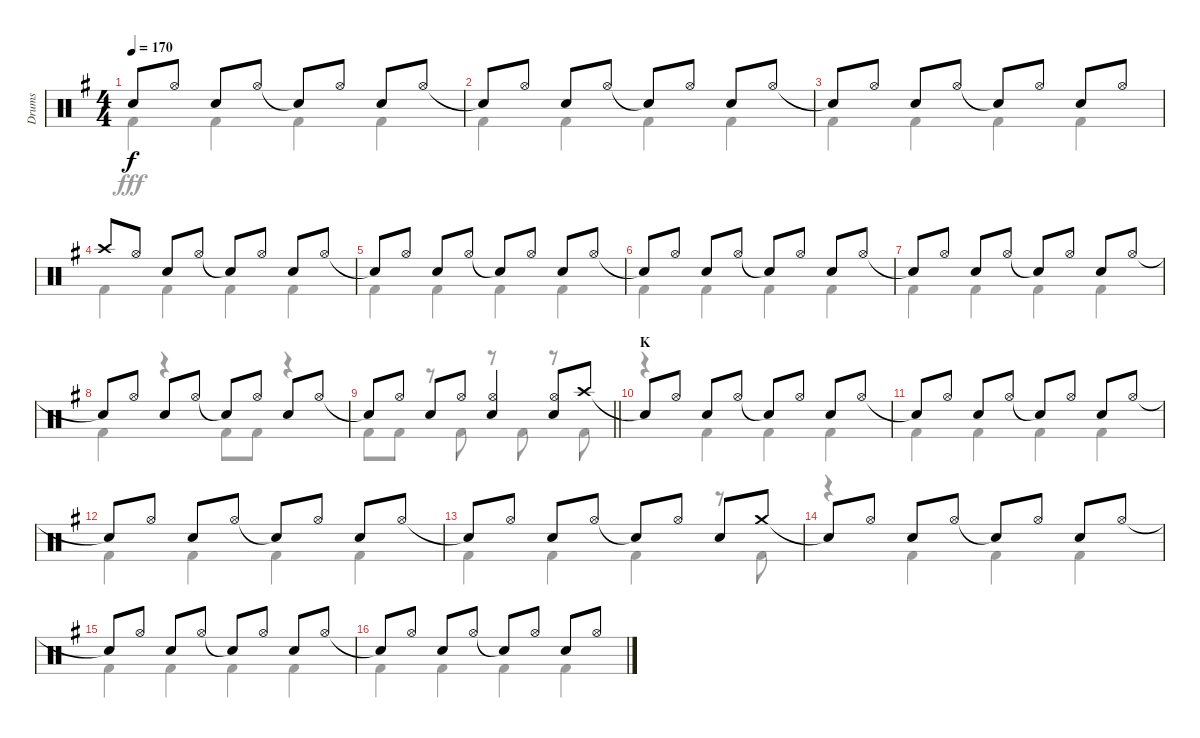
\track ("Drums" "Drums") {instrument percussion}
\staff {score}
\articulation defaults
\voice
\ts (4 4)
\tempo 170
\clef neutral
\ks g "Snare (hit)"{t}.8{dy f} "Hi-Hat (open)".8 "Snare (hit) 2".8 "Hi-Hat (open)".8 "Snare (hit)"{t}.8 "Hi-Hat (open)".8 "Snare (hit) 2".8 "Hi-Hat (open)".8
|
"Snare (hit)"{t}.8 "Hi-Hat (open)".8 "Snare (hit) 2".8 "Hi-Hat (open)".8 "Snare (hit)"{t}.8 "Hi-Hat (open)".8 "Snare (hit) 2".8 "Hi-Hat (open)".8 |
"Snare (hit)"{t}.8 "Hi-Hat (open)".8 "Snare (hit) 2".8 "Hi-Hat (open)".8 "Snare (hit)"{t}.8 "Hi-Hat (open)".8 "Snare (hit) 2".8 "Hi-Hat (open)".8 |
"Crash high (hit)".8 "Hi-Hat (open)".8 "Snare (hit) 2".8 "Hi-Hat (open)".8 "Snare (hit)"{t}.8 "Hi-Hat (open)".8 "Snare (hit) 2".8 "Hi-Hat (open)".8 |
"Snare (hit)"{t}.8 "Hi-Hat (open)".8 "Snare (hit) 2".8 "Hi-Hat (open)".8 "Snare (hit)"{t}.8 "Hi-Hat (open)".8 "Snare (hit) 2".8 "Hi-Hat (open)".8 |
"Snare (hit)"{t}.8 "Hi-Hat (open)".8 "Snare (hit) 2".8 "Hi-Hat (open)".8 "Snare (hit)"{t}.8 "Hi-Hat (open)".8 "Snare (hit) 2".8 "Hi-Hat (open)".8 |
"Snare (hit)"{t}.8 "Hi-Hat (open)".8 "Snare (hit) 2".8 "Hi-Hat (open)".8 "Snare (hit)"{t}.8 "Hi-Hat (open)".8 "Snare (hit) 2".8 "Hi-Hat (open)".8 |
"Snare (hit)"{t}.8 "Hi-Hat (open)".8 "Snare (hit) 2".8 "Hi-Hat (open)".8 "Snare (hit)"{t}.8 "Hi-Hat (open)".8 "Snare (hit) 2".8 "Hi-Hat (open)".8 |
\barLineRight lightlight "Snare (hit)"{t}.8 "Hi-Hat (open)".8 "Snare (hit) 2".8 "Hi-Hat (open)".8
("Hi-Hat (open)" "Snare (hit) 2").4 ("Hi-Hat (open)" "Snare (hit) 2").8 "Crash high (hit)".8 |
\section ("" "K")
"Snare (hit)"{t}.8 "Hi-Hat (open)".8 "Snare (hit) 2".8 "Hi-Hat (open)".8 "Snare (hit)"{t}.8 "Hi-Hat (open)".8 "Snare (hit) 2".8 "Hi-Hat (open)".8 |
"Snare (hit)"{t}.8 "Hi-Hat (open)".8 "Snare (hit) 2".8 "Hi-Hat (open)".8 "Snare (hit)"{t}.8 "Hi-Hat (open)".8 "Snare (hit) 2".8 "Hi-Hat (open)".8 |
"Snare (hit)"{t}.8 "Hi-Hat (open)".8 "Snare (hit) 2".8 "Hi-Hat (open)".8 "Snare (hit)"{t}.8 "Hi-Hat (open)".8 "Snare (hit) 2".8 "Hi-Hat (open)".8 |
"Snare (hit)"{t}.8 "Hi-Hat (open)".8 "Snare (hit) 2".8 "Hi-Hat (open)".8 "Snare (hit)"{t}.8 "Hi-Hat (open)".8 "Snare (hit) 2".8 "Crash medium (hit)".8 |
"Snare (hit)"{t}.8 "Hi-Hat (open)".8 "Snare (hit) 2".8 "Hi-Hat (open)".8 "Snare (hit)"{t}.8 "Hi-Hat (open)".8 "Snare (hit) 2".8 "Hi-Hat (open)".8 |
"Snare (hit)"{t}.8 "Hi-Hat (open)".8 "Snare (hit) 2".8 "Hi-Hat (open)".8 "Snare (hit)"{t}.8 "Hi-Hat (open)".8 "Snare (hit) 2".8 "Hi-Hat (open)".8 |
"Snare (hit)"{t}.8 "Hi-Hat (open)".8 "Snare (hit) 2".8 "Hi-Hat (open)".8 "Snare (hit)"{t}.8 "Hi-Hat (open)".8 "Snare (hit) 2".8 "Hi-Hat (open)".8
\voice
\clef neutral
\ottava regular
\simile none
\ks g "Kick (hit) 2".4{dy fff} "Kick (hit) 2".4 "Kick (hit) 2".4 "Kick (hit) 2".4
|
"Kick (hit) 2".4 "Kick (hit) 2".4 "Kick (hit) 2".4 "Kick (hit) 2".4 |
"Kick (hit) 2".4 "Kick (hit) 2".4 "Kick (hit) 2".4 "Kick (hit) 2".4 |
"Kick (hit) 2".4 "Kick (hit) 2".4 "Kick (hit) 2".4 "Kick (hit) 2".4 |
"Kick (hit) 2".4 "Kick (hit) 2".4 "Kick (hit) 2".4 "Kick (hit) 2".4 |
"Kick (hit) 2".4 "Kick (hit) 2".4 "Kick (hit) 2".4 "Kick (hit) 2".4 |
"Kick (hit) 2".4 "Kick (hit) 2".4 "Kick (hit) 2".4 "Kick (hit) 2".4 |
"Kick (hit) 2".4 r.4 "Kick (hit) 2".8 "Kick (hit) 2".8 r.4 |
\barLineRight lightlight "Kick (hit) 2".8 "Kick (hit) 2".8
r.8 "Kick (hit) 2".8 r.8 "Kick (hit) 2".8 r.8 "Kick (hit) 2".8 |
r.4 "Kick (hit) 2".4 "Kick (hit) 2".4 "Kick (hit) 2".4 |
"Kick (hit) 2".4 "Kick (hit) 2".4 "Kick (hit) 2".4 "Kick (hit) 2".4 |
"Kick (hit) 2".4 "Kick (hit) 2".4 "Kick (hit) 2".4 "Kick (hit) 2".4 |
"Kick (hit) 2".4 "Kick (hit) 2".4 "Kick (hit) 2".4 r.8 "Kick (hit) 2".8 |
r.4 "Kick (hit) 2".4 "Kick (hit) 2".4 "Kick (hit) 2".4 |
"Kick (hit) 2".4 "Kick (hit) 2".4 "Kick (hit) 2".4 "Kick (hit) 2".4 |
"Kick (hit) 2".4 "Kick (hit) 2".4 "Kick (hit) 2".4 "Kick (hit) 2".4
